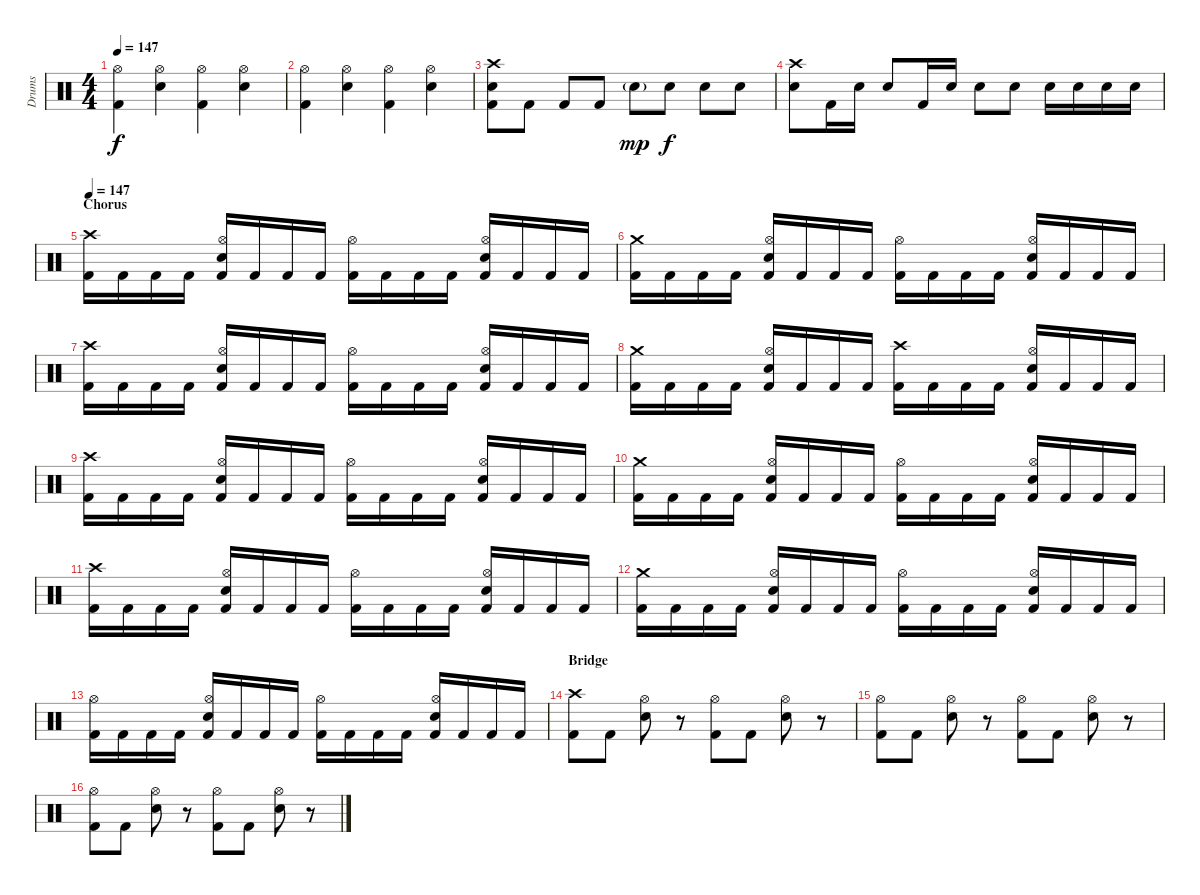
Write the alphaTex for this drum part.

\track ("Drums" "Drums") {instrument percussion}
\staff {score}
\articulation defaults
\ts (4 4)
\tempo 147
\clef neutral
\ks c
("Kick (hit) 2" "Hi-Hat (open)").4{dy f} ("Electric Snare (hit)" "Hi-Hat (open)").4 ("Kick (hit) 2" "Hi-Hat (open)").4 ("Electric Snare (hit)" "Hi-Hat (open)").4 |
("Kick (hit) 2" "Hi-Hat (open)").4 ("Electric Snare (hit)" "Hi-Hat (open)").4 ("Kick (hit) 2" "Hi-Hat (open)").4 ("Electric Snare (hit)" "Hi-Hat (open)").4 |
("Kick (hit) 2" "Electric Snare (hit)" "Crash high (hit)").8 "Kick (hit) 2".8 "Kick (hit) 2".8 "Kick (hit) 2".8 "Electric Snare (hit)"{g}.8{dy mp} "Electric Snare (hit)".8{dy f} "Electric Snare (hit)".8 "Electric Snare (hit)".8 |
("Electric Snare (hit)" "Crash high (hit)").8 "Kick (hit) 2".16 "Electric Snare (hit)".16 "Electric Snare (hit)".8 "Kick (hit) 2".16 "Electric Snare (hit)".16 "Electric Snare (hit)".8 "Electric Snare (hit)".8 "Electric Snare (hit)".16 "Electric Snare (hit)".16 "Electric Snare (hit)".16 "Electric Snare (hit)".16 |
\section ("" "Chorus")
\tempo 147
("Kick (hit) 2" "Crash high (hit)").16 "Kick (hit) 2".16 "Kick (hit) 2".16 "Kick (hit) 2".16 ("Kick (hit) 2" "Electric Snare (hit)" "Hi-Hat (open)").16 "Kick (hit) 2".16 "Kick (hit) 2".16 "Kick (hit) 2".16 ("Kick (hit) 2" "Hi-Hat (open)").16 "Kick (hit) 2".16 "Kick (hit) 2".16 "Kick (hit) 2".16 ("Kick (hit) 2" "Electric Snare (hit)" "Hi-Hat (open)").16 "Kick (hit) 2".16 "Kick (hit) 2".16 "Kick (hit) 2".16 |
("Kick (hit) 2" "Crash medium (hit)").16 "Kick (hit) 2".16 "Kick (hit) 2".16 "Kick (hit) 2".16 ("Kick (hit) 2" "Electric Snare (hit)" "Hi-Hat (open)").16 "Kick (hit) 2".16 "Kick (hit) 2".16 "Kick (hit) 2".16 ("Kick (hit) 2" "Hi-Hat (open)").16 "Kick (hit) 2".16 "Kick (hit) 2".16 "Kick (hit) 2".16 ("Kick (hit) 2" "Electric Snare (hit)" "Hi-Hat (open)").16 "Kick (hit) 2".16 "Kick (hit) 2".16 "Kick (hit) 2".16 |
("Kick (hit) 2" "Crash high (hit)").16 "Kick (hit) 2".16 "Kick (hit) 2".16 "Kick (hit) 2".16 ("Kick (hit) 2" "Electric Snare (hit)" "Hi-Hat (open)").16 "Kick (hit) 2".16 "Kick (hit) 2".16 "Kick (hit) 2".16 ("Kick (hit) 2" "Hi-Hat (open)").16 "Kick (hit) 2".16 "Kick (hit) 2".16 "Kick (hit) 2".16 ("Kick (hit) 2" "Electric Snare (hit)" "Hi-Hat (open)").16 "Kick (hit) 2".16 "Kick (hit) 2".16 "Kick (hit) 2".16 |
("Kick (hit) 2" "Crash medium (hit)").16 "Kick (hit) 2".16 "Kick (hit) 2".16 "Kick (hit) 2".16 ("Kick (hit) 2" "Electric Snare (hit)" "Hi-Hat (open)").16 "Kick (hit) 2".16 "Kick (hit) 2".16 "Kick (hit) 2".16 ("Kick (hit) 2" "Crash high (hit)").16 "Kick (hit) 2".16 "Kick (hit) 2".16 "Kick (hit) 2".16 ("Kick (hit) 2" "Electric Snare (hit)" "Hi-Hat (open)").16 "Kick (hit) 2".16 "Kick (hit) 2".16 "Kick (hit) 2".16 |
("Kick (hit) 2" "Crash high (hit)").16 "Kick (hit) 2".16 "Kick (hit) 2".16 "Kick (hit) 2".16 ("Kick (hit) 2" "Electric Snare (hit)" "Hi-Hat (open)").16 "Kick (hit) 2".16 "Kick (hit) 2".16 "Kick (hit) 2".16 ("Kick (hit) 2" "Hi-Hat (open)").16 "Kick (hit) 2".16 "Kick (hit) 2".16 "Kick (hit) 2".16 ("Kick (hit) 2" "Electric Snare (hit)" "Hi-Hat (open)").16 "Kick (hit) 2".16 "Kick (hit) 2".16 "Kick (hit) 2".16 |
("Kick (hit) 2" "Crash medium (hit)").16 "Kick (hit) 2".16 "Kick (hit) 2".16 "Kick (hit) 2".16 ("Kick (hit) 2" "Electric Snare (hit)" "Hi-Hat (open)").16 "Kick (hit) 2".16 "Kick (hit) 2".16 "Kick (hit) 2".16 ("Kick (hit) 2" "Hi-Hat (open)").16 "Kick (hit) 2".16 "Kick (hit) 2".16 "Kick (hit) 2".16 ("Kick (hit) 2" "Electric Snare (hit)" "Hi-Hat (open)").16 "Kick (hit) 2".16 "Kick (hit) 2".16 "Kick (hit) 2".16 |
("Kick (hit) 2" "Crash high (hit)").16 "Kick (hit) 2".16 "Kick (hit) 2".16 "Kick (hit) 2".16 ("Kick (hit) 2" "Electric Snare (hit)" "Hi-Hat (open)").16 "Kick (hit) 2".16 "Kick (hit) 2".16 "Kick (hit) 2".16 ("Kick (hit) 2" "Hi-Hat (open)").16 "Kick (hit) 2".16 "Kick (hit) 2".16 "Kick (hit) 2".16 ("Kick (hit) 2" "Electric Snare (hit)" "Hi-Hat (open)").16 "Kick (hit) 2".16 "Kick (hit) 2".16 "Kick (hit) 2".16 |
("Kick (hit) 2" "Crash medium (hit)").16 "Kick (hit) 2".16 "Kick (hit) 2".16 "Kick (hit) 2".16 ("Kick (hit) 2" "Electric Snare (hit)" "Hi-Hat (open)").16 "Kick (hit) 2".16 "Kick (hit) 2".16 "Kick (hit) 2".16 ("Kick (hit) 2" "Hi-Hat (open)").16 "Kick (hit) 2".16 "Kick (hit) 2".16 "Kick (hit) 2".16 ("Kick (hit) 2" "Electric Snare (hit)" "Hi-Hat (open)").16 "Kick (hit) 2".16 "Kick (hit) 2".16 "Kick (hit) 2".16 |
("Kick (hit) 2" "Hi-Hat (open)").16 "Kick (hit) 2".16 "Kick (hit) 2".16 "Kick (hit) 2".16 ("Kick (hit) 2" "Electric Snare (hit)" "Hi-Hat (open)").16 "Kick (hit) 2".16 "Kick (hit) 2".16 "Kick (hit) 2".16 ("Kick (hit) 2" "Hi-Hat (open)").16 "Kick (hit) 2".16 "Kick (hit) 2".16 "Kick (hit) 2".16 ("Kick (hit) 2" "Electric Snare (hit)" "Hi-Hat (open)").16 "Kick (hit) 2".16 "Kick (hit) 2".16 "Kick (hit) 2".16 |
\section ("" "Bridge")
("Kick (hit) 2" "Crash high (hit)").8 "Kick (hit) 2".8 ("Electric Snare (hit)" "Hi-Hat (open)").8 r.8 ("Kick (hit) 2" "Hi-Hat (open)").8 "Kick (hit) 2".8 ("Electric Snare (hit)" "Hi-Hat (open)").8 r.8 |
("Kick (hit) 2" "Hi-Hat (open)").8 "Kick (hit) 2".8 ("Electric Snare (hit)" "Hi-Hat (open)").8 r.8 ("Kick (hit) 2" "Hi-Hat (open)").8 "Kick (hit) 2".8 ("Electric Snare (hit)" "Hi-Hat (open)").8 r.8 |
("Kick (hit) 2" "Hi-Hat (open)").8 "Kick (hit) 2".8 ("Electric Snare (hit)" "Hi-Hat (open)").8 r.8 ("Kick (hit) 2" "Hi-Hat (open)").8 "Kick (hit) 2".8 ("Electric Snare (hit)" "Hi-Hat (open)").8 r.8
